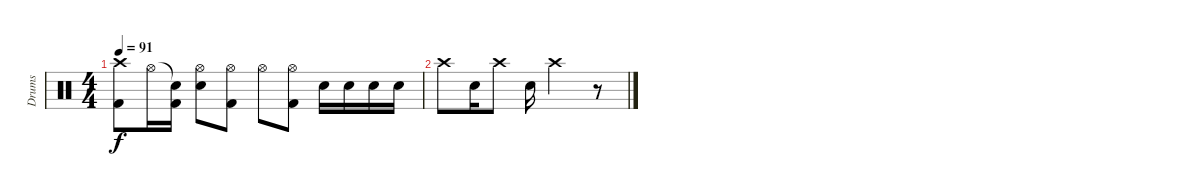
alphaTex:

\track ("Drums" "Drums") {instrument percussion}
\staff {score}
\articulation defaults
\ts (4 4)
\tempo 91
\clef neutral
\ks c
("Crash high (hit)" "Kick (hit) 2").8{dy f} "Hi-Hat (open)".16 ("Snare (hit)"{t} "Kick (hit) 2").16 ("Hi-Hat (open)" "Electric Snare (hit)").8 ("Hi-Hat (open)" "Kick (hit) 2").8 "Hi-Hat (open)".8 ("Hi-Hat (open)" "Kick (hit) 2").8 "Electric Snare (hit)".16 "Electric Snare (hit)".16 "Electric Snare (hit)".16 "Electric Snare (hit)".16 |
"Crash high (hit)".8 "Electric Snare (hit)".16 "Crash high (hit)".8 "Electric Snare (hit)".16 "Crash high (hit)".2 r.8
